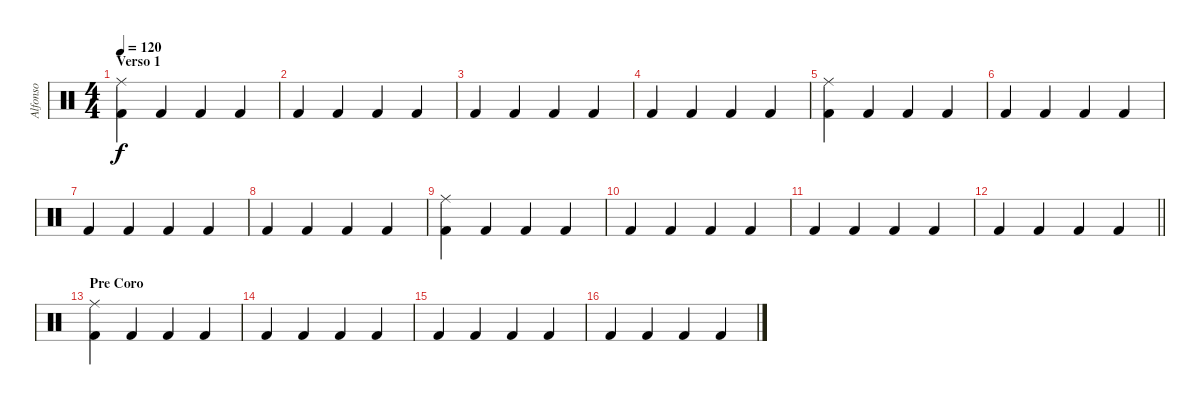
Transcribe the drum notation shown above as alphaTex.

\track ("Alfonso" "Alfonso") {instrument percussion}
\staff {score}
\articulation defaults
\ts (4 4)
\section ("" "Verso 1")
\tempo 120
\clef neutral
\ks c
("Kick (hit) 2" "Ride (middle)").4{dy f} "Kick (hit) 2".4 "Kick (hit) 2".4 "Kick (hit) 2".4 |
"Kick (hit) 2".4 "Kick (hit) 2".4 "Kick (hit) 2".4 "Kick (hit) 2".4 |
"Kick (hit) 2".4 "Kick (hit) 2".4 "Kick (hit) 2".4 "Kick (hit) 2".4 |
"Kick (hit) 2".4 "Kick (hit) 2".4 "Kick (hit) 2".4 "Kick (hit) 2".4 |
("Kick (hit) 2" "Ride (middle)").4 "Kick (hit) 2".4 "Kick (hit) 2".4 "Kick (hit) 2".4 |
"Kick (hit) 2".4 "Kick (hit) 2".4 "Kick (hit) 2".4 "Kick (hit) 2".4 |
"Kick (hit) 2".4 "Kick (hit) 2".4 "Kick (hit) 2".4 "Kick (hit) 2".4 |
"Kick (hit) 2".4 "Kick (hit) 2".4 "Kick (hit) 2".4 "Kick (hit) 2".4 |
("Kick (hit) 2" "Ride (middle)").4 "Kick (hit) 2".4 "Kick (hit) 2".4 "Kick (hit) 2".4 |
"Kick (hit) 2".4 "Kick (hit) 2".4 "Kick (hit) 2".4 "Kick (hit) 2".4 |
"Kick (hit) 2".4 "Kick (hit) 2".4 "Kick (hit) 2".4 "Kick (hit) 2".4 |
\barLineRight lightlight "Kick (hit) 2".4 "Kick (hit) 2".4 "Kick (hit) 2".4 "Kick (hit) 2".4
|
\section ("" "Pre Coro")
("Kick (hit) 2" "Ride (middle)").4 "Kick (hit) 2".4 "Kick (hit) 2".4 "Kick (hit) 2".4 |
"Kick (hit) 2".4 "Kick (hit) 2".4 "Kick (hit) 2".4 "Kick (hit) 2".4 |
"Kick (hit) 2".4 "Kick (hit) 2".4 "Kick (hit) 2".4 "Kick (hit) 2".4 |
"Kick (hit) 2".4 "Kick (hit) 2".4 "Kick (hit) 2".4 "Kick (hit) 2".4
